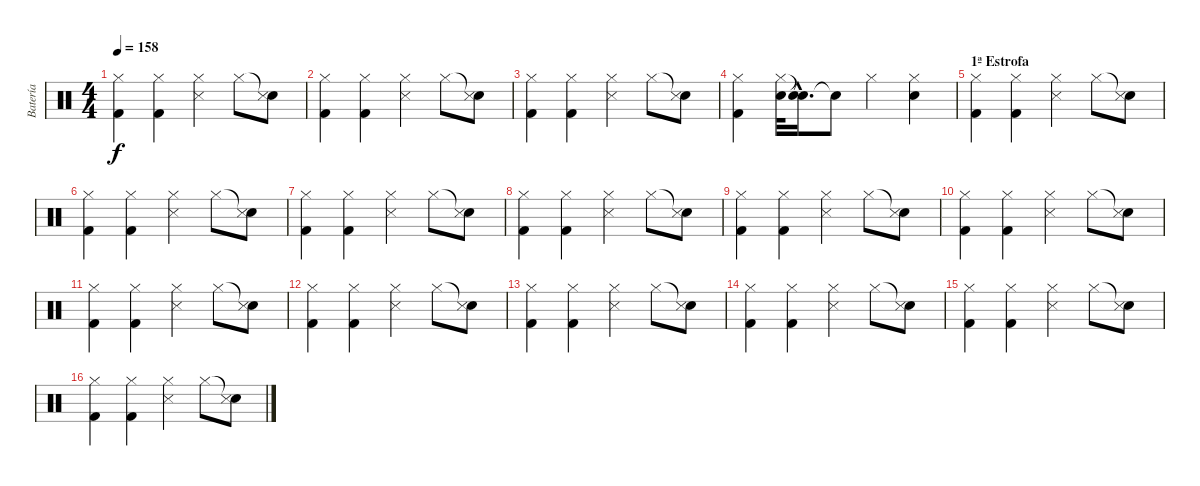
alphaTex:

\track ("Batería" "Batería") {instrument percussion}
\staff {score}
\articulation defaults
\ts (4 4)
\tempo 158
\clef neutral
\ks c
("Hi-Hat (closed)" "Kick (hit) 2").4{dy f} ("Hi-Hat (closed)" "Kick (hit) 2").4 ("Hi-Hat (closed)" "Snare (side stick) 3").4 "Hi-Hat (closed)".8 ("Snare (hit)"{t} "Snare (side stick) 3").8 |
("Hi-Hat (closed)" "Kick (hit) 2").4 ("Hi-Hat (closed)" "Kick (hit) 2").4 ("Hi-Hat (closed)" "Snare (side stick) 3").4 "Hi-Hat (closed)".8 ("Snare (hit)"{t} "Snare (side stick) 3").8 |
("Hi-Hat (closed)" "Kick (hit) 2").4 ("Hi-Hat (closed)" "Kick (hit) 2").4 ("Hi-Hat (closed)" "Snare (side stick) 3").4 "Hi-Hat (closed)".8 ("Snare (hit)"{t} "Snare (side stick) 3").8 |
("Hi-Hat (closed)" "Kick (hit) 2").4 ("Hi-Hat (closed)" "Electric Snare (hit)").32 ("Snare (hit)"{hac t} "Electric Snare (hit)"{hac}).16{d} "Snare (hit)"{t}.8 "Hi-Hat (closed)".4 ("Hi-Hat (closed)" "Electric Snare (hit)").4 |
\section ("" "1ª Estrofa")
("Hi-Hat (closed)" "Kick (hit) 2").4 ("Hi-Hat (closed)" "Kick (hit) 2").4 ("Hi-Hat (closed)" "Snare (side stick) 3").4 "Hi-Hat (closed)".8 ("Snare (hit)"{t} "Snare (side stick) 3").8 |
("Hi-Hat (closed)" "Kick (hit) 2").4 ("Hi-Hat (closed)" "Kick (hit) 2").4 ("Hi-Hat (closed)" "Snare (side stick) 3").4 "Hi-Hat (closed)".8 ("Snare (hit)"{t} "Snare (side stick) 3").8 |
("Hi-Hat (closed)" "Kick (hit) 2").4 ("Hi-Hat (closed)" "Kick (hit) 2").4 ("Hi-Hat (closed)" "Snare (side stick) 3").4 "Hi-Hat (closed)".8 ("Snare (hit)"{t} "Snare (side stick) 3").8 |
("Hi-Hat (closed)" "Kick (hit) 2").4 ("Hi-Hat (closed)" "Kick (hit) 2").4 ("Hi-Hat (closed)" "Snare (side stick) 3").4 "Hi-Hat (closed)".8 ("Snare (hit)"{t} "Snare (side stick) 3").8 |
("Hi-Hat (closed)" "Kick (hit) 2").4 ("Hi-Hat (closed)" "Kick (hit) 2").4 ("Hi-Hat (closed)" "Snare (side stick) 3").4 "Hi-Hat (closed)".8 ("Snare (hit)"{t} "Snare (side stick) 3").8 |
("Hi-Hat (closed)" "Kick (hit) 2").4 ("Hi-Hat (closed)" "Kick (hit) 2").4 ("Hi-Hat (closed)" "Snare (side stick) 3").4 "Hi-Hat (closed)".8 ("Snare (hit)"{t} "Snare (side stick) 3").8 |
("Hi-Hat (closed)" "Kick (hit) 2").4 ("Hi-Hat (closed)" "Kick (hit) 2").4 ("Hi-Hat (closed)" "Snare (side stick) 3").4 "Hi-Hat (closed)".8 ("Snare (hit)"{t} "Snare (side stick) 3").8 |
("Hi-Hat (closed)" "Kick (hit) 2").4 ("Hi-Hat (closed)" "Kick (hit) 2").4 ("Hi-Hat (closed)" "Snare (side stick) 3").4 "Hi-Hat (closed)".8 ("Snare (hit)"{t} "Snare (side stick) 3").8 |
("Hi-Hat (closed)" "Kick (hit) 2").4 ("Hi-Hat (closed)" "Kick (hit) 2").4 ("Hi-Hat (closed)" "Snare (side stick) 3").4 "Hi-Hat (closed)".8 ("Snare (hit)"{t} "Snare (side stick) 3").8 |
("Hi-Hat (closed)" "Kick (hit) 2").4 ("Hi-Hat (closed)" "Kick (hit) 2").4 ("Hi-Hat (closed)" "Snare (side stick) 3").4 "Hi-Hat (closed)".8 ("Snare (hit)"{t} "Snare (side stick) 3").8 |
("Hi-Hat (closed)" "Kick (hit) 2").4 ("Hi-Hat (closed)" "Kick (hit) 2").4 ("Hi-Hat (closed)" "Snare (side stick) 3").4 "Hi-Hat (closed)".8 ("Snare (hit)"{t} "Snare (side stick) 3").8 |
("Hi-Hat (closed)" "Kick (hit) 2").4 ("Hi-Hat (closed)" "Kick (hit) 2").4 ("Hi-Hat (closed)" "Snare (side stick) 3").4 "Hi-Hat (closed)".8 ("Snare (hit)"{t} "Snare (side stick) 3").8
